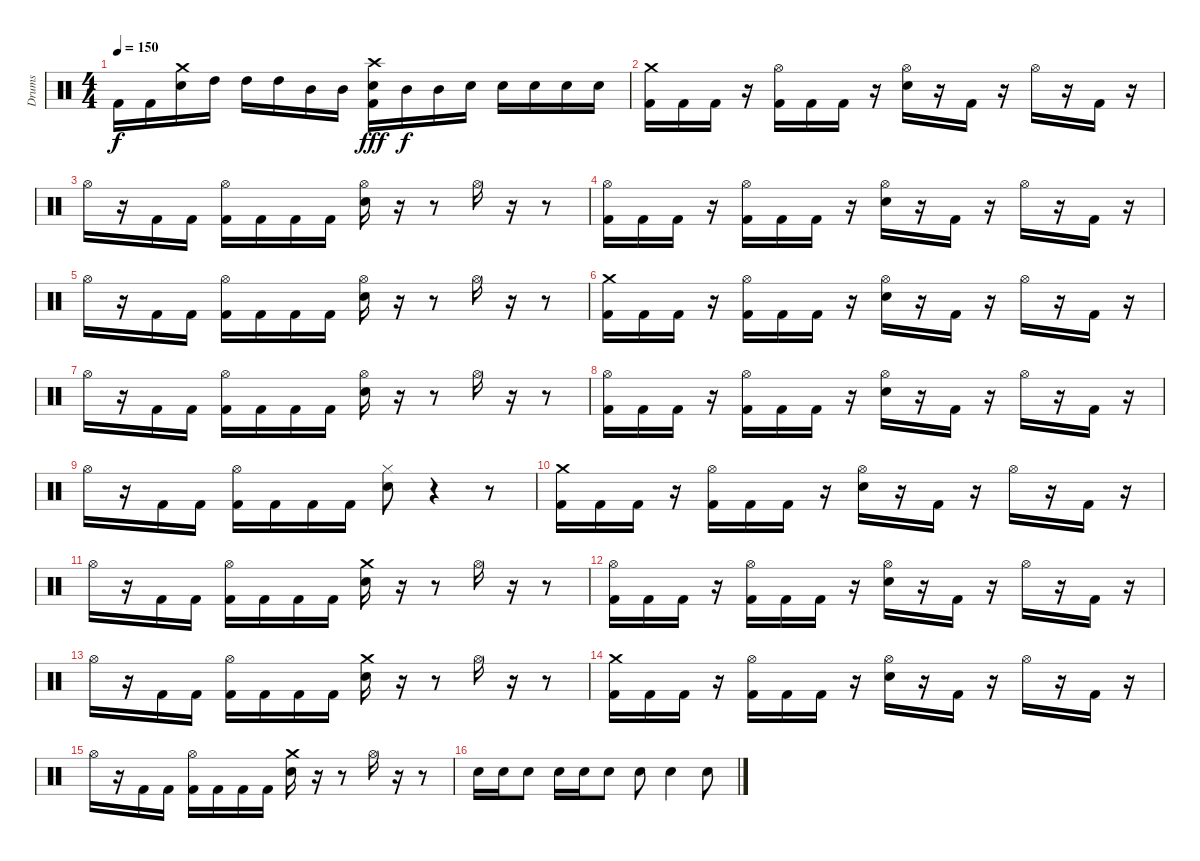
\track ("Drums" "Drums") {instrument percussion}
\staff {score}
\articulation defaults
\ts (4 4)
\tempo 150
\clef neutral
\ks c "Kick (hit) 2".16{dy f} "Kick (hit) 2".16
("Crash medium (hit)" "Electric Snare (hit)").16 "High Tom (hit)".16 "High Tom (hit)".16 "High Tom (hit)".16 "Mid Tom (hit)".16 "Mid Tom (hit)".16 ("Crash high (hit)" "Electric Snare (hit)" "Kick (hit) 2").16{dy fff} "Mid Tom (hit)".16{dy f} "Mid Tom (hit)".16 "Electric Snare (hit)".16 "Electric Snare (hit)".16 "Electric Snare (hit)".16 "Electric Snare (hit)".16 "Electric Snare (hit)".16 |
("Crash medium (hit)" "Kick (hit) 2").16 "Kick (hit) 2".16 "Kick (hit) 2".16 r.16 ("Hi-Hat (open)" "Kick (hit) 2").16 "Kick (hit) 2".16 "Kick (hit) 2".16 r.16 ("Hi-Hat (open)" "Electric Snare (hit)").16 r.16 "Kick (hit) 2".16 r.16 "Hi-Hat (open)".16 r.16 "Kick (hit) 2".16 r.16 |
"Hi-Hat (open)".16 r.16 "Kick (hit) 2".16 "Kick (hit) 2".16 ("Hi-Hat (open)" "Kick (hit) 2").16 "Kick (hit) 2".16 "Kick (hit) 2".16 "Kick (hit) 2".16 ("Hi-Hat (open)" "Electric Snare (hit)").16 r.16 r.8 "Hi-Hat (open)".16 r.16 r.8 |
("Hi-Hat (open)" "Kick (hit) 2").16 "Kick (hit) 2".16 "Kick (hit) 2".16 r.16 ("Hi-Hat (open)" "Kick (hit) 2").16 "Kick (hit) 2".16 "Kick (hit) 2".16 r.16 ("Hi-Hat (open)" "Electric Snare (hit)").16 r.16 "Kick (hit) 2".16 r.16 "Hi-Hat (open)".16 r.16 "Kick (hit) 2".16 r.16 |
"Hi-Hat (open)".16 r.16 "Kick (hit) 2".16 "Kick (hit) 2".16 ("Hi-Hat (open)" "Kick (hit) 2").16 "Kick (hit) 2".16 "Kick (hit) 2".16 "Kick (hit) 2".16 ("Hi-Hat (open)" "Electric Snare (hit)").16 r.16 r.8 "Hi-Hat (open)".16 r.16 r.8 |
("Crash medium (hit)" "Kick (hit) 2").16 "Kick (hit) 2".16 "Kick (hit) 2".16 r.16 ("Hi-Hat (open)" "Kick (hit) 2").16 "Kick (hit) 2".16 "Kick (hit) 2".16 r.16 ("Hi-Hat (open)" "Electric Snare (hit)").16 r.16 "Kick (hit) 2".16 r.16 "Hi-Hat (open)".16 r.16 "Kick (hit) 2".16 r.16 |
"Hi-Hat (open)".16 r.16 "Kick (hit) 2".16 "Kick (hit) 2".16 ("Hi-Hat (open)" "Kick (hit) 2").16 "Kick (hit) 2".16 "Kick (hit) 2".16 "Kick (hit) 2".16 ("Hi-Hat (open)" "Electric Snare (hit)").16 r.16 r.8 "Hi-Hat (open)".16 r.16 r.8 |
("Hi-Hat (open)" "Kick (hit) 2").16 "Kick (hit) 2".16 "Kick (hit) 2".16 r.16 ("Hi-Hat (open)" "Kick (hit) 2").16 "Kick (hit) 2".16 "Kick (hit) 2".16 r.16 ("Hi-Hat (open)" "Electric Snare (hit)").16 r.16 "Kick (hit) 2".16 r.16 "Hi-Hat (open)".16 r.16 "Kick (hit) 2".16 r.16 |
"Hi-Hat (open)".16 r.16 "Kick (hit) 2".16 "Kick (hit) 2".16 ("Hi-Hat (open)" "Kick (hit) 2").16 "Kick (hit) 2".16 "Kick (hit) 2".16 "Kick (hit) 2".16 ("Hi-Hat (closed)" "Electric Snare (hit)").8 r.4 r.8 |
("Crash medium (hit)" "Kick (hit) 2").16 "Kick (hit) 2".16 "Kick (hit) 2".16 r.16 ("Hi-Hat (open)" "Kick (hit) 2").16 "Kick (hit) 2".16 "Kick (hit) 2".16 r.16 ("Hi-Hat (open)" "Electric Snare (hit)").16 r.16 "Kick (hit) 2".16 r.16 "Hi-Hat (open)".16 r.16 "Kick (hit) 2".16 r.16 |
"Hi-Hat (open)".16 r.16 "Kick (hit) 2".16 "Kick (hit) 2".16 ("Hi-Hat (open)" "Kick (hit) 2").16 "Kick (hit) 2".16 "Kick (hit) 2".16 "Kick (hit) 2".16 ("Crash medium (hit)" "Electric Snare (hit)").16 r.16 r.8 "Hi-Hat (open)".16 r.16 r.8 |
("Hi-Hat (open)" "Kick (hit) 2").16 "Kick (hit) 2".16 "Kick (hit) 2".16 r.16 ("Hi-Hat (open)" "Kick (hit) 2").16 "Kick (hit) 2".16 "Kick (hit) 2".16 r.16 ("Hi-Hat (open)" "Electric Snare (hit)").16 r.16 "Kick (hit) 2".16 r.16 "Hi-Hat (open)".16 r.16 "Kick (hit) 2".16 r.16 |
"Hi-Hat (open)".16 r.16 "Kick (hit) 2".16 "Kick (hit) 2".16 ("Hi-Hat (open)" "Kick (hit) 2").16 "Kick (hit) 2".16 "Kick (hit) 2".16 "Kick (hit) 2".16 ("Crash medium (hit)" "Electric Snare (hit)").16 r.16 r.8 "Hi-Hat (open)".16 r.16 r.8 |
("Crash medium (hit)" "Kick (hit) 2").16 "Kick (hit) 2".16 "Kick (hit) 2".16 r.16 ("Hi-Hat (open)" "Kick (hit) 2").16 "Kick (hit) 2".16 "Kick (hit) 2".16 r.16 ("Hi-Hat (open)" "Electric Snare (hit)").16 r.16 "Kick (hit) 2".16 r.16 "Hi-Hat (open)".16 r.16 "Kick (hit) 2".16 r.16 |
"Hi-Hat (open)".16 r.16 "Kick (hit) 2".16 "Kick (hit) 2".16 ("Hi-Hat (open)" "Kick (hit) 2").16 "Kick (hit) 2".16 "Kick (hit) 2".16 "Kick (hit) 2".16 ("Crash medium (hit)" "Electric Snare (hit)").16 r.16 r.8 "Hi-Hat (open)".16 r.16 r.8 |
"Electric Snare (hit)".16 "Electric Snare (hit)".16 "Electric Snare (hit)".8 "Electric Snare (hit)".16 "Electric Snare (hit)".16 "Electric Snare (hit)".8 "Electric Snare (hit)".8 "Electric Snare (hit)".4 "Electric Snare (hit)".8
